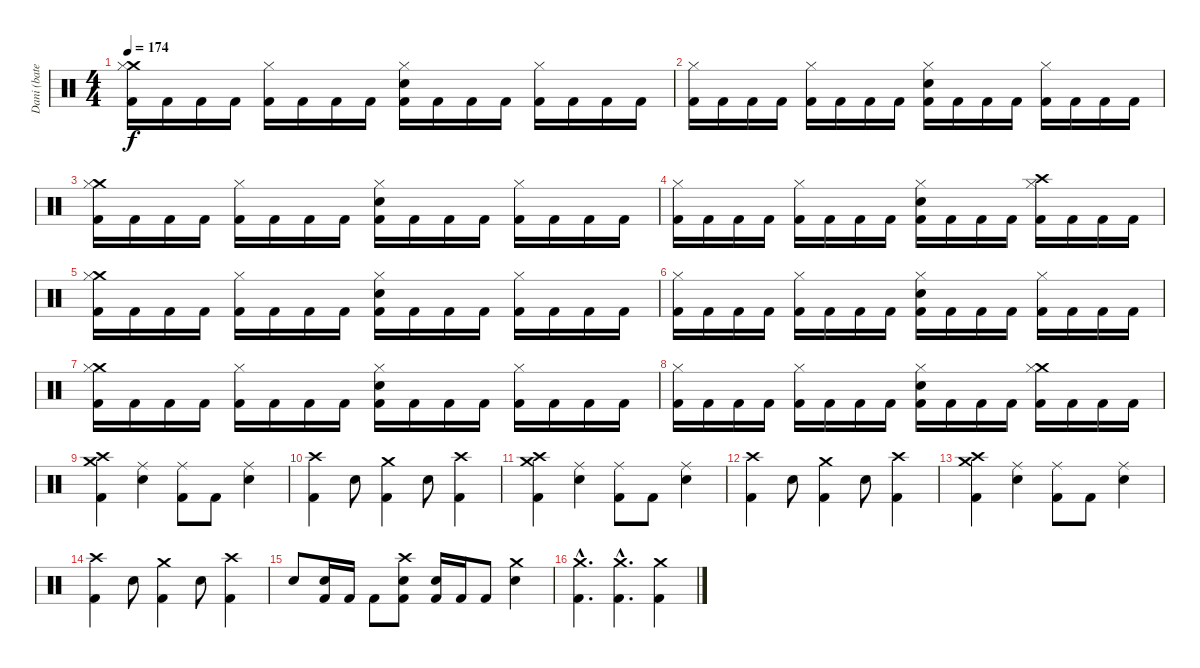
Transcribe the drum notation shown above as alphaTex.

\track ("Dani (batería)" "Dani (bate") {instrument percussion}
\staff {score}
\articulation defaults
\ts (4 4)
\tempo 174
\clef neutral
\ks c
("Crash medium (hit)" "Hi-Hat (closed)" "Kick (hit) 2").16{dy f} "Kick (hit) 2".16 "Kick (hit) 2".16 "Kick (hit) 2".16 ("Hi-Hat (closed)" "Kick (hit) 2").16 "Kick (hit) 2".16 "Kick (hit) 2".16 "Kick (hit) 2".16 ("Hi-Hat (closed)" "Electric Snare (hit)" "Kick (hit) 2").16 "Kick (hit) 2".16 "Kick (hit) 2".16 "Kick (hit) 2".16 ("Hi-Hat (closed)" "Kick (hit) 2").16 "Kick (hit) 2".16 "Kick (hit) 2".16 "Kick (hit) 2".16 |
("Hi-Hat (closed)" "Kick (hit) 2").16 "Kick (hit) 2".16 "Kick (hit) 2".16 "Kick (hit) 2".16 ("Hi-Hat (closed)" "Kick (hit) 2").16 "Kick (hit) 2".16 "Kick (hit) 2".16 "Kick (hit) 2".16 ("Hi-Hat (closed)" "Electric Snare (hit)" "Kick (hit) 2").16 "Kick (hit) 2".16 "Kick (hit) 2".16 "Kick (hit) 2".16 ("Hi-Hat (closed)" "Kick (hit) 2").16 "Kick (hit) 2".16 "Kick (hit) 2".16 "Kick (hit) 2".16 |
("Crash medium (hit)" "Hi-Hat (closed)" "Kick (hit) 2").16 "Kick (hit) 2".16 "Kick (hit) 2".16 "Kick (hit) 2".16 ("Hi-Hat (closed)" "Kick (hit) 2").16 "Kick (hit) 2".16 "Kick (hit) 2".16 "Kick (hit) 2".16 ("Hi-Hat (closed)" "Electric Snare (hit)" "Kick (hit) 2").16 "Kick (hit) 2".16 "Kick (hit) 2".16 "Kick (hit) 2".16 ("Hi-Hat (closed)" "Kick (hit) 2").16 "Kick (hit) 2".16 "Kick (hit) 2".16 "Kick (hit) 2".16 |
("Hi-Hat (closed)" "Kick (hit) 2").16 "Kick (hit) 2".16 "Kick (hit) 2".16 "Kick (hit) 2".16 ("Hi-Hat (closed)" "Kick (hit) 2").16 "Kick (hit) 2".16 "Kick (hit) 2".16 "Kick (hit) 2".16 ("Hi-Hat (closed)" "Electric Snare (hit)" "Kick (hit) 2").16 "Kick (hit) 2".16 "Kick (hit) 2".16 "Kick (hit) 2".16 ("Crash high (hit)" "Hi-Hat (closed)" "Kick (hit) 2").16 "Kick (hit) 2".16 "Kick (hit) 2".16 "Kick (hit) 2".16 |
("Crash medium (hit)" "Hi-Hat (closed)" "Kick (hit) 2").16 "Kick (hit) 2".16 "Kick (hit) 2".16 "Kick (hit) 2".16 ("Hi-Hat (closed)" "Kick (hit) 2").16 "Kick (hit) 2".16 "Kick (hit) 2".16 "Kick (hit) 2".16 ("Hi-Hat (closed)" "Electric Snare (hit)" "Kick (hit) 2").16 "Kick (hit) 2".16 "Kick (hit) 2".16 "Kick (hit) 2".16 ("Hi-Hat (closed)" "Kick (hit) 2").16 "Kick (hit) 2".16 "Kick (hit) 2".16 "Kick (hit) 2".16 |
("Hi-Hat (closed)" "Kick (hit) 2").16 "Kick (hit) 2".16 "Kick (hit) 2".16 "Kick (hit) 2".16 ("Hi-Hat (closed)" "Kick (hit) 2").16 "Kick (hit) 2".16 "Kick (hit) 2".16 "Kick (hit) 2".16 ("Hi-Hat (closed)" "Electric Snare (hit)" "Kick (hit) 2").16 "Kick (hit) 2".16 "Kick (hit) 2".16 "Kick (hit) 2".16 ("Hi-Hat (closed)" "Kick (hit) 2").16 "Kick (hit) 2".16 "Kick (hit) 2".16 "Kick (hit) 2".16 |
("Crash medium (hit)" "Hi-Hat (closed)" "Kick (hit) 2").16 "Kick (hit) 2".16 "Kick (hit) 2".16 "Kick (hit) 2".16 ("Hi-Hat (closed)" "Kick (hit) 2").16 "Kick (hit) 2".16 "Kick (hit) 2".16 "Kick (hit) 2".16 ("Hi-Hat (closed)" "Electric Snare (hit)" "Kick (hit) 2").16 "Kick (hit) 2".16 "Kick (hit) 2".16 "Kick (hit) 2".16 ("Hi-Hat (closed)" "Kick (hit) 2").16 "Kick (hit) 2".16 "Kick (hit) 2".16 "Kick (hit) 2".16 |
("Hi-Hat (closed)" "Kick (hit) 2").16 "Kick (hit) 2".16 "Kick (hit) 2".16 "Kick (hit) 2".16 ("Hi-Hat (closed)" "Kick (hit) 2").16 "Kick (hit) 2".16 "Kick (hit) 2".16 "Kick (hit) 2".16 ("Hi-Hat (closed)" "Electric Snare (hit)" "Kick (hit) 2").16 "Kick (hit) 2".16 "Kick (hit) 2".16 "Kick (hit) 2".16 ("Crash medium (hit)" "Hi-Hat (closed)" "Kick (hit) 2").16 "Kick (hit) 2".16 "Kick (hit) 2".16 "Kick (hit) 2".16 |
("Crash medium (hit)" "Crash high (hit)" "Kick (hit) 2").4 ("Ride (middle)" "Electric Snare (hit)").4 ("Ride (middle)" "Kick (hit) 2").8 "Kick (hit) 2".8 ("Ride (middle)" "Electric Snare (hit)").4 |
("Crash high (hit)" "Kick (hit) 2").4 "Electric Snare (hit)".8 ("Crash medium (hit)" "Kick (hit) 2").4 "Electric Snare (hit)".8 ("Crash high (hit)" "Kick (hit) 2").4 |
("Crash medium (hit)" "Crash high (hit)" "Kick (hit) 2").4 ("Ride (middle)" "Electric Snare (hit)").4 ("Ride (middle)" "Kick (hit) 2").8 "Kick (hit) 2".8 ("Ride (middle)" "Electric Snare (hit)").4 |
("Crash high (hit)" "Kick (hit) 2").4 "Electric Snare (hit)".8 ("Crash medium (hit)" "Kick (hit) 2").4 "Electric Snare (hit)".8 ("Crash high (hit)" "Kick (hit) 2").4 |
("Crash medium (hit)" "Crash high (hit)" "Kick (hit) 2").4 ("Ride (middle)" "Electric Snare (hit)").4 ("Ride (middle)" "Kick (hit) 2").8 "Kick (hit) 2".8 ("Ride (middle)" "Electric Snare (hit)").4 |
("Crash high (hit)" "Kick (hit) 2").4 "Electric Snare (hit)".8 ("Crash medium (hit)" "Kick (hit) 2").4 "Electric Snare (hit)".8 ("Crash high (hit)" "Kick (hit) 2").4 |
"Electric Snare (hit)".8 ("Electric Snare (hit)" "Kick (hit) 2").16 "Kick (hit) 2".16 "Kick (hit) 2".8 ("Crash high (hit)" "Electric Snare (hit)" "Kick (hit) 2").8 ("Electric Snare (hit)" "Kick (hit) 2").16 "Kick (hit) 2".16 "Kick (hit) 2".8 ("Crash medium (hit)" "Electric Snare (hit)").4 |
("Crash medium (hit)"{hac} "Kick (hit) 2"{hac}).4{d} ("Crash medium (hit)"{hac} "Kick (hit) 2"{hac}).4{d} ("Crash medium (hit)" "Kick (hit) 2").4
